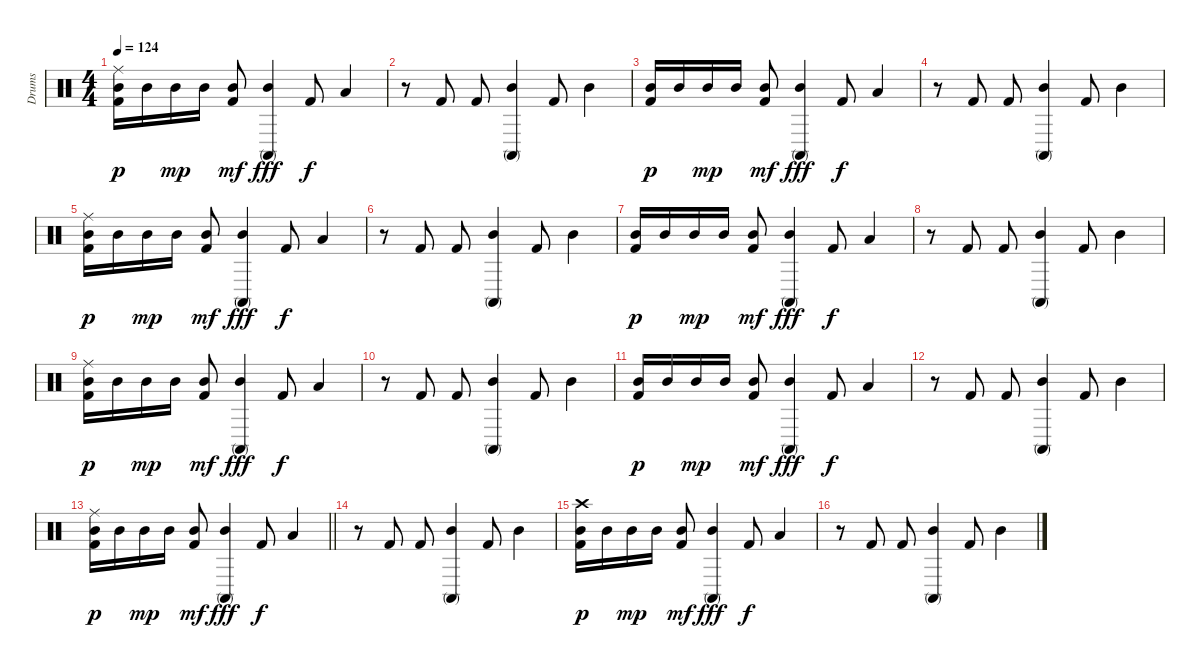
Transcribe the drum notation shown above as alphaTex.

\track ("Drums" "Drums") {instrument percussion}
\staff {score}
\articulation defaults
\ts (4 4)
\tempo 124
\clef neutral
\ks c
("Ride (middle)" "Mid Tom (hit)" "Kick (hit) 2").16{dy p} "Mid Tom (hit)".16 "Mid Tom (hit)".16{dy mp} "Mid Tom (hit)".16 ("Mid Tom (hit)" "Kick (hit) 2").8{dy mf} ("Mid Tom (hit)" "Conga high (mute)").4{dy fff} "Kick (hit) 2".8{dy f} "Low Tom (hit)".4 |
r.8 "Kick (hit) 2".8 "Kick (hit) 2".8 ("Mid Tom (hit)" "Conga high (mute)").4 "Kick (hit) 2".8 "Mid Tom (hit)".4 |
("Mid Tom (hit)" "Kick (hit) 2").16{dy p} "Mid Tom (hit)".16 "Mid Tom (hit)".16{dy mp} "Mid Tom (hit)".16 ("Mid Tom (hit)" "Kick (hit) 2").8{dy mf} ("Mid Tom (hit)" "Conga high (mute)").4{dy fff} "Kick (hit) 2".8{dy f} "Low Tom (hit)".4 |
r.8 "Kick (hit) 2".8 "Kick (hit) 2".8 ("Mid Tom (hit)" "Conga high (mute)").4 "Kick (hit) 2".8 "Mid Tom (hit)".4 |
("Ride (middle)" "Mid Tom (hit)" "Kick (hit) 2").16{dy p} "Mid Tom (hit)".16 "Mid Tom (hit)".16{dy mp} "Mid Tom (hit)".16 ("Mid Tom (hit)" "Kick (hit) 2").8{dy mf} ("Mid Tom (hit)" "Conga high (mute)").4{dy fff} "Kick (hit) 2".8{dy f} "Low Tom (hit)".4 |
r.8 "Kick (hit) 2".8 "Kick (hit) 2".8 ("Mid Tom (hit)" "Conga high (mute)").4 "Kick (hit) 2".8 "Mid Tom (hit)".4 |
("Mid Tom (hit)" "Kick (hit) 2").16{dy p} "Mid Tom (hit)".16 "Mid Tom (hit)".16{dy mp} "Mid Tom (hit)".16 ("Mid Tom (hit)" "Kick (hit) 2").8{dy mf} ("Mid Tom (hit)" "Conga high (mute)").4{dy fff} "Kick (hit) 2".8{dy f} "Low Tom (hit)".4 |
r.8 "Kick (hit) 2".8 "Kick (hit) 2".8 ("Mid Tom (hit)" "Conga high (mute)").4 "Kick (hit) 2".8 "Mid Tom (hit)".4 |
("Ride (middle)" "Mid Tom (hit)" "Kick (hit) 2").16{dy p} "Mid Tom (hit)".16 "Mid Tom (hit)".16{dy mp} "Mid Tom (hit)".16 ("Mid Tom (hit)" "Kick (hit) 2").8{dy mf} ("Mid Tom (hit)" "Conga high (mute)").4{dy fff} "Kick (hit) 2".8{dy f} "Low Tom (hit)".4 |
r.8 "Kick (hit) 2".8 "Kick (hit) 2".8 ("Mid Tom (hit)" "Conga high (mute)").4 "Kick (hit) 2".8 "Mid Tom (hit)".4 |
("Mid Tom (hit)" "Kick (hit) 2").16{dy p} "Mid Tom (hit)".16 "Mid Tom (hit)".16{dy mp} "Mid Tom (hit)".16 ("Mid Tom (hit)" "Kick (hit) 2").8{dy mf} ("Mid Tom (hit)" "Conga high (mute)").4{dy fff} "Kick (hit) 2".8{dy f} "Low Tom (hit)".4 |
r.8 "Kick (hit) 2".8 "Kick (hit) 2".8 ("Mid Tom (hit)" "Conga high (mute)").4 "Kick (hit) 2".8 "Mid Tom (hit)".4 |
\barLineRight lightlight
("Ride (middle)" "Mid Tom (hit)" "Kick (hit) 2").16{dy p} "Mid Tom (hit)".16 "Mid Tom (hit)".16{dy mp} "Mid Tom (hit)".16 ("Mid Tom (hit)" "Kick (hit) 2").8{dy mf} ("Mid Tom (hit)" "Conga high (mute)").4{dy fff} "Kick (hit) 2".8{dy f} "Low Tom (hit)".4 |
r.8 "Kick (hit) 2".8 "Kick (hit) 2".8 ("Mid Tom (hit)" "Conga high (mute)").4 "Kick (hit) 2".8 "Mid Tom (hit)".4 |
("Crash high (hit)" "Mid Tom (hit)" "Kick (hit) 2").16{dy p} "Mid Tom (hit)".16 "Mid Tom (hit)".16{dy mp} "Mid Tom (hit)".16 ("Mid Tom (hit)" "Kick (hit) 2").8{dy mf} ("Mid Tom (hit)" "Conga high (mute)").4{dy fff} "Kick (hit) 2".8{dy f} "Low Tom (hit)".4 |
r.8 "Kick (hit) 2".8 "Kick (hit) 2".8 ("Mid Tom (hit)" "Conga high (mute)").4 "Kick (hit) 2".8 "Mid Tom (hit)".4
